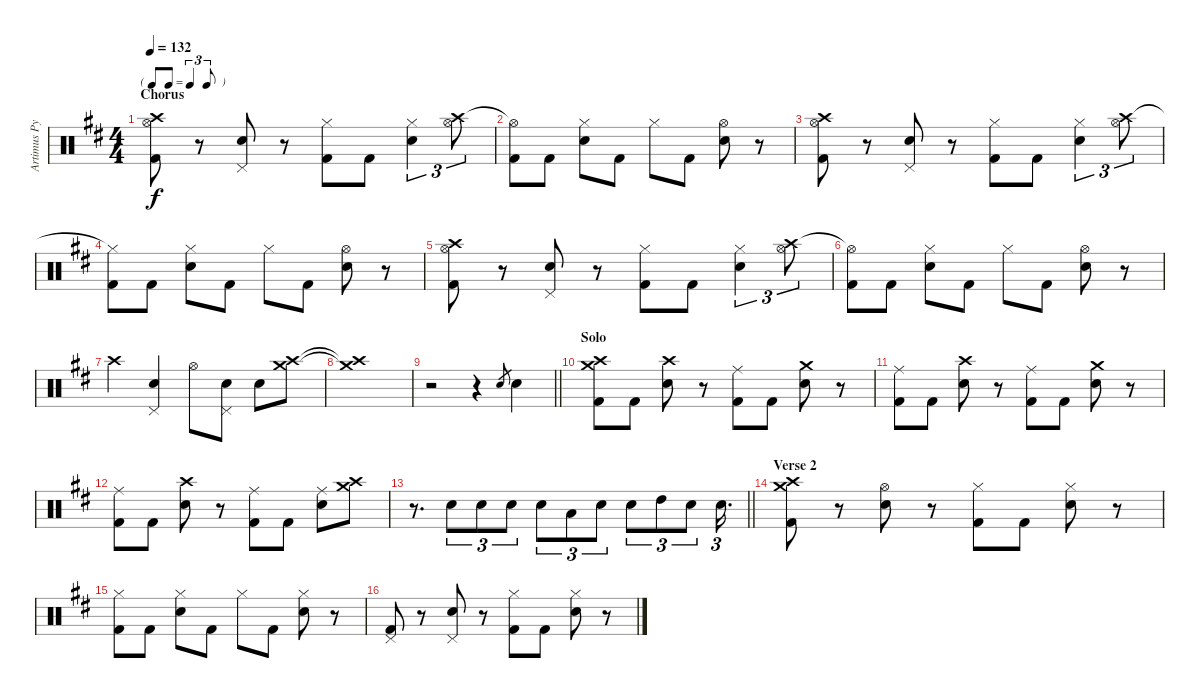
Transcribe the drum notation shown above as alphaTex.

\track ("Artimus Pyle - Drums" "Artimus Py") {solo instrument percussion}
\staff {score}
\articulation defaults
\ts (4 4)
\tf triplet8th
\section ("" "Chorus")
\tempo 132
\clef neutral
\ks d
("Crash high (hit)" "Hi-Hat (open)" "Kick (hit) 2").8{dy f} r.8 ("Snare (hit) 2" "Pedal Hi-Hat (hit)").8 r.8 ("Hi-Hat (closed)" "Kick (hit) 2").8 "Kick (hit) 2".8 ("Snare (hit) 2" "Hi-Hat (closed)").4{tu (3 2)} ("Crash high (hit)" "Hi-Hat (open)").8{tu (3 2)} |
("Hi-Hat (open)"{t} "Kick (hit) 2").8 "Kick (hit) 2".8 ("Snare (hit) 2" "Hi-Hat (closed)").8 "Kick (hit) 2".8 "Hi-Hat (closed)".8 "Kick (hit) 2".8 ("Snare (hit) 2" "Hi-Hat (open)").8 r.8 |
("Crash high (hit)" "Hi-Hat (open)" "Kick (hit) 2").8 r.8 ("Snare (hit) 2" "Pedal Hi-Hat (hit)").8 r.8 ("Hi-Hat (closed)" "Kick (hit) 2").8 "Kick (hit) 2".8 ("Snare (hit) 2" "Hi-Hat (closed)").4{tu (3 2)} ("Crash high (hit)" "Hi-Hat (open)").8{tu (3 2)} |
("Hi-Hat (closed)"{t} "Kick (hit) 2").8 "Kick (hit) 2".8 ("Snare (hit) 2" "Hi-Hat (closed)").8 "Kick (hit) 2".8 "Hi-Hat (closed)".8 "Kick (hit) 2".8 ("Snare (hit) 2" "Hi-Hat (open)").8 r.8 |
("Crash high (hit)" "Hi-Hat (open)" "Kick (hit) 2").8 r.8 ("Snare (hit) 2" "Pedal Hi-Hat (hit)").8 r.8 ("Hi-Hat (closed)" "Kick (hit) 2").8 "Kick (hit) 2".8 ("Snare (hit) 2" "Hi-Hat (closed)").4{tu (3 2)} ("Crash high (hit)" "Hi-Hat (open)").8{tu (3 2)} |
("Hi-Hat (open)"{t} "Kick (hit) 2").8 "Kick (hit) 2".8 ("Snare (hit) 2" "Hi-Hat (closed)").8 "Kick (hit) 2".8 "Hi-Hat (closed)".8 "Kick (hit) 2".8 ("Snare (hit) 2" "Hi-Hat (open)").8 r.8 |
"Crash high (hit)".4 ("Snare (hit) 2" "Pedal Hi-Hat (hit)").4 "Hi-Hat (open)".8 ("Snare (hit) 2" "Pedal Hi-Hat (hit)").8 "Snare (hit) 2".8 ("Crash high (hit)" "Crash medium (hit)").8 |
("Crash high (hit)"{t} "Crash medium (hit)"{t}).1 |
\barLineRight lightlight
r.2 r.4 "Snare (hit) 2".8{gr} "Snare (hit) 2".4 |
\section ("" "Solo")
("Crash high (hit)" "Crash medium (hit)" "Kick (hit) 2").8 "Kick (hit) 2".8 ("Crash high (hit)" "Snare (hit) 2").8 r.8 ("Ride (middle)" "Kick (hit) 2").8 "Kick (hit) 2".8 ("Crash medium (hit)" "Snare (hit) 2").8 r.8 |
("Ride (middle)" "Kick (hit) 2").8 "Kick (hit) 2".8 ("Crash high (hit)" "Snare (hit) 2").8 r.8 ("Ride (middle)" "Kick (hit) 2").8 "Kick (hit) 2".8 ("Crash medium (hit)" "Snare (hit) 2").8 r.8 |
("Ride (middle)" "Kick (hit) 2").8 "Kick (hit) 2".8 ("Crash high (hit)" "Snare (hit) 2").8 r.8 ("Ride (middle)" "Kick (hit) 2").8 "Kick (hit) 2".8 ("Ride (middle)" "Snare (hit) 2").8 ("Crash high (hit)" "Crash medium (hit)").8 |
\barLineRight lightlight
r.8{d} "Snare (hit) 2".8{tu (3 2)} "Snare (hit) 2".8{tu (3 2)} "Snare (hit) 2".8{tu (3 2)} "Snare (hit) 2".8{tu (3 2)} "Low Floor Tom (hit)".8{tu (3 2)} "Snare (hit) 2".8{tu (3 2)} "Snare (hit) 2".8{tu (3 2)} "High Tom (hit)".8{tu (3 2)} "Snare (hit) 2".8{tu (3 2)} "Snare (hit) 2".16{d tu (3 2)} |
\section ("" "Verse 2")
("Crash medium (hit)" "Crash high (hit)" "Kick (hit) 2").8 r.8 ("Snare (hit) 2" "Hi-Hat (open)").8 r.8 ("Hi-Hat (closed)" "Kick (hit) 2").8 "Kick (hit) 2".8 ("Snare (hit) 2" "Hi-Hat (closed)").8 r.8 |
("Hi-Hat (closed)" "Kick (hit) 2").8 "Kick (hit) 2".8 ("Snare (hit) 2" "Hi-Hat (closed)").8 "Kick (hit) 2".8 "Hi-Hat (closed)".8 "Kick (hit) 2".8 ("Snare (hit) 2" "Hi-Hat (closed)").8 r.8 |
("Pedal Hi-Hat (hit)" "Kick (hit) 2").8 r.8 ("Snare (hit) 2" "Pedal Hi-Hat (hit)").8 r.8 ("Hi-Hat (closed)" "Kick (hit) 2").8 "Kick (hit) 2".8 ("Snare (hit) 2" "Hi-Hat (closed)").8 r.8
